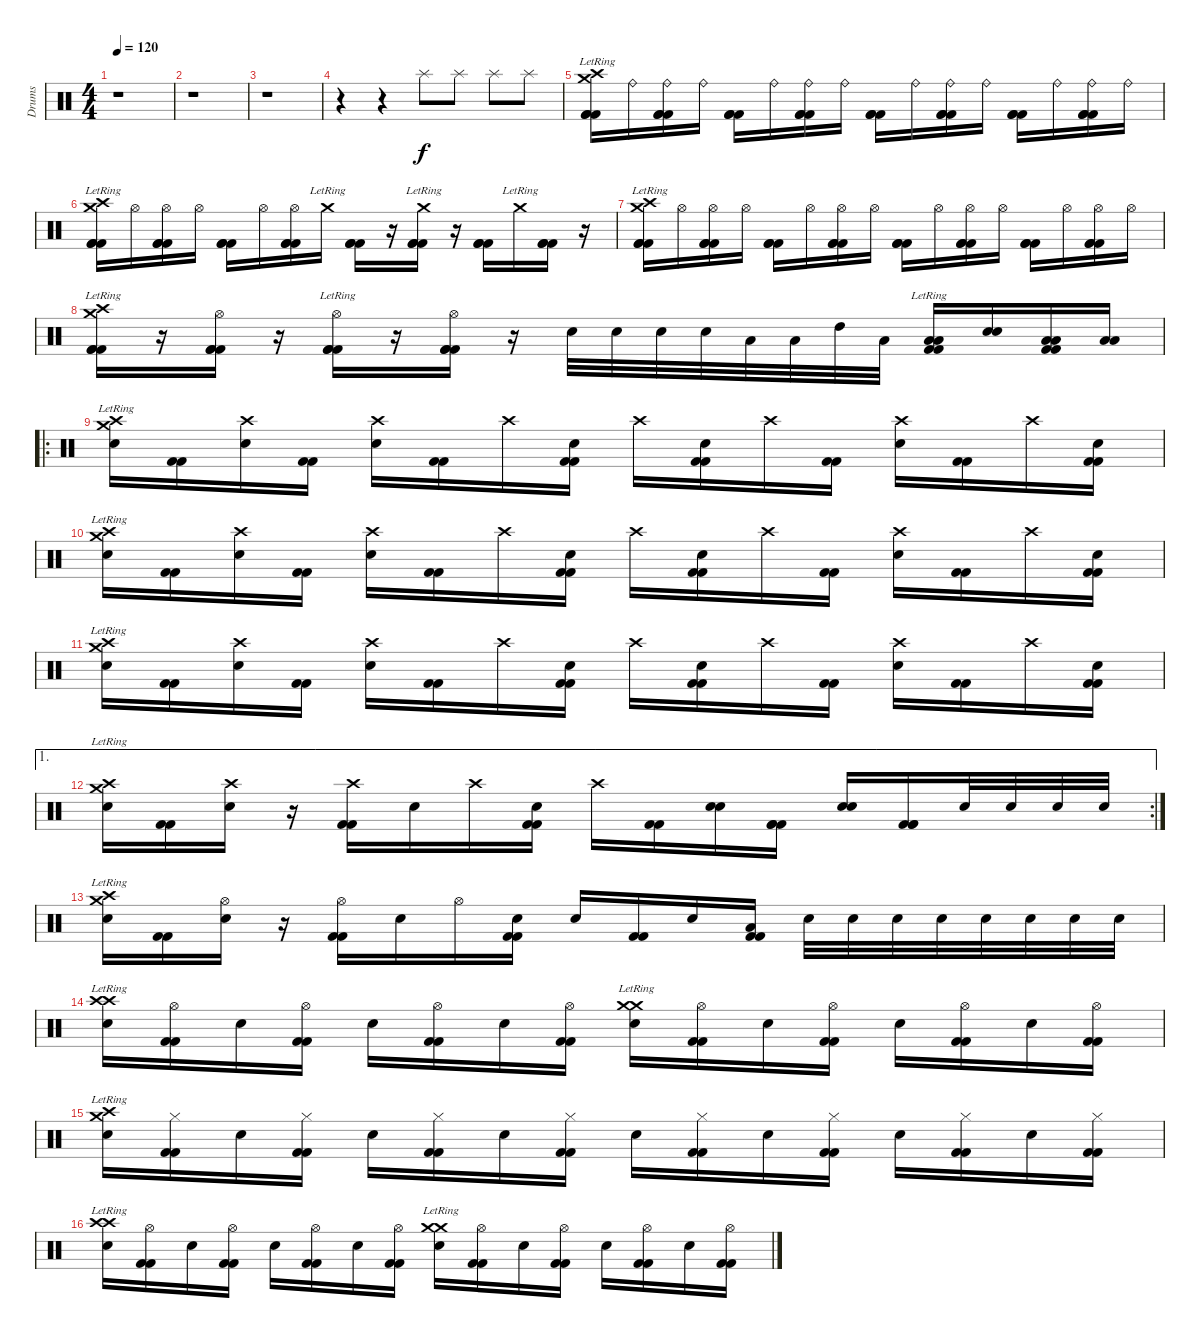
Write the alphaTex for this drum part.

\track ("Drums" "Drums") {instrument percussion}
\staff {score}
\articulation defaults
\ts (4 4)
\tempo 120
\clef neutral
\ks c
r.1{dy f} |
r.1 |
r.1 |
r.4 r.4 "Splash (hit)".8 "Splash (hit)".8 "Splash (hit)".8 "Splash (hit)".8 |
("Crash high (hit)"{lr} "Crash medium (hit)"{lr} "Kick (hit) 2" "Kick (hit) 2" "Kick (hit) 2").16 "Ride (bell)".16 ("Ride (bell)" "Kick (hit) 2" "Kick (hit) 2" "Kick (hit) 2").16 "Ride (bell)".16 ("Kick (hit) 2" "Kick (hit) 2" "Kick (hit) 2").16 "Ride (bell)".16 ("Ride (bell)" "Kick (hit) 2" "Kick (hit) 2" "Kick (hit) 2").16 "Ride (bell)".16 ("Kick (hit) 2" "Kick (hit) 2" "Kick (hit) 2").16 "Ride (bell)".16 ("Ride (bell)" "Kick (hit) 2" "Kick (hit) 2" "Kick (hit) 2").16 "Ride (bell)".16 ("Kick (hit) 2" "Kick (hit) 2" "Kick (hit) 2").16 "Ride (bell)".16 ("Ride (bell)" "Kick (hit) 2" "Kick (hit) 2" "Kick (hit) 2").16 "Ride (bell)".16 |
("Crash high (hit)"{lr} "Crash medium (hit)"{lr} "Kick (hit) 2" "Kick (hit) 2" "Kick (hit) 2").16 "Hi-Hat (open)".16 ("Hi-Hat (open)" "Kick (hit) 2" "Kick (hit) 2" "Kick (hit) 2").16 "Hi-Hat (open)".16 ("Kick (hit) 2" "Kick (hit) 2" "Kick (hit) 2").16 "Hi-Hat (open)".16 ("Hi-Hat (open)" "Kick (hit) 2" "Kick (hit) 2" "Kick (hit) 2").16 "Crash medium (hit)"{lr}.16 ("Kick (hit) 2" "Kick (hit) 2" "Kick (hit) 2").16 r.16 ("Crash medium (hit)"{lr} "Kick (hit) 2" "Kick (hit) 2" "Kick (hit) 2").16 r.16 ("Kick (hit) 2" "Kick (hit) 2" "Kick (hit) 2").16 "Crash medium (hit)"{lr}.16 ("Kick (hit) 2" "Kick (hit) 2" "Kick (hit) 2").16 r.16 |
("Crash high (hit)"{lr} "Crash medium (hit)"{lr} "Kick (hit) 2" "Kick (hit) 2" "Kick (hit) 2").16 "Hi-Hat (open)".16 ("Hi-Hat (open)" "Kick (hit) 2" "Kick (hit) 2" "Kick (hit) 2").16 "Hi-Hat (open)".16 ("Kick (hit) 2" "Kick (hit) 2" "Kick (hit) 2").16 "Hi-Hat (open)".16 ("Hi-Hat (open)" "Kick (hit) 2" "Kick (hit) 2" "Kick (hit) 2").16 "Hi-Hat (open)".16 ("Kick (hit) 2" "Kick (hit) 2" "Kick (hit) 2").16 "Hi-Hat (open)".16 ("Hi-Hat (open)" "Kick (hit) 2" "Kick (hit) 2" "Kick (hit) 2").16 "Hi-Hat (open)".16 ("Kick (hit) 2" "Kick (hit) 2" "Kick (hit) 2").16 "Hi-Hat (open)".16 ("Hi-Hat (open)" "Kick (hit) 2" "Kick (hit) 2" "Kick (hit) 2").16 "Hi-Hat (open)".16 |
("Crash high (hit)"{lr} "Crash medium (hit)"{lr} "Kick (hit) 2" "Kick (hit) 2" "Kick (hit) 2").16 r.16 ("Hi-Hat (open)" "Kick (hit) 2" "Kick (hit) 2" "Kick (hit) 2").16 r.16 ("Hi-Hat (open)"{lr} "Kick (hit) 2" "Kick (hit) 2" "Kick (hit) 2").16 r.16 ("Hi-Hat (open)" "Kick (hit) 2" "Kick (hit) 2" "Kick (hit) 2").16 r.16 "Electric Snare (hit)".32 "Electric Snare (hit)".32 "Electric Snare (hit)".32 "Electric Snare (hit)".32 "Low Floor Tom (hit)".32 "Low Tom (hit)".32 "High Tom (hit)".32 "Low Tom (hit)".32 ("Low Floor Tom (hit)" "Low Floor Tom (hit)"{lr} "Kick (hit) 2" "Kick (hit) 2").16 ("Electric Snare (hit)" "Electric Snare (hit)").16 ("Low Floor Tom (hit)" "Low Floor Tom (hit)" "Kick (hit) 2" "Kick (hit) 2").16 ("Low Tom (hit)" "Low Tom (hit)").16 |
\ro
("Crash medium (hit)"{lr} "Crash high (hit)"{lr} "Electric Snare (hit)").16 ("Kick (hit) 2" "Kick (hit) 2").16 ("Crash high (hit)" "Electric Snare (hit)").16 ("Kick (hit) 2" "Kick (hit) 2").16 ("Crash high (hit)" "Electric Snare (hit)").16 ("Kick (hit) 2" "Kick (hit) 2").16 "Crash high (hit)".16 ("Electric Snare (hit)" "Kick (hit) 2" "Kick (hit) 2").16 "Crash high (hit)".16 ("Electric Snare (hit)" "Kick (hit) 2" "Kick (hit) 2").16 "Crash high (hit)".16 ("Kick (hit) 2" "Kick (hit) 2").16 ("Crash high (hit)" "Electric Snare (hit)").16 ("Kick (hit) 2" "Kick (hit) 2").16 "Crash high (hit)".16 ("Electric Snare (hit)" "Kick (hit) 2" "Kick (hit) 2").16 |
("Crash medium (hit)"{lr} "Crash high (hit)"{lr} "Electric Snare (hit)").16 ("Kick (hit) 2" "Kick (hit) 2").16 ("Crash high (hit)" "Electric Snare (hit)").16 ("Kick (hit) 2" "Kick (hit) 2").16 ("Crash high (hit)" "Electric Snare (hit)").16 ("Kick (hit) 2" "Kick (hit) 2").16 "Crash high (hit)".16 ("Electric Snare (hit)" "Kick (hit) 2" "Kick (hit) 2").16 "Crash high (hit)".16 ("Electric Snare (hit)" "Kick (hit) 2" "Kick (hit) 2").16 "Crash high (hit)".16 ("Kick (hit) 2" "Kick (hit) 2").16 ("Crash high (hit)" "Electric Snare (hit)").16 ("Kick (hit) 2" "Kick (hit) 2").16 "Crash high (hit)".16 ("Electric Snare (hit)" "Kick (hit) 2" "Kick (hit) 2").16 |
("Crash medium (hit)"{lr} "Crash high (hit)"{lr} "Electric Snare (hit)").16 ("Kick (hit) 2" "Kick (hit) 2").16 ("Crash high (hit)" "Electric Snare (hit)").16 ("Kick (hit) 2" "Kick (hit) 2").16 ("Crash high (hit)" "Electric Snare (hit)").16 ("Kick (hit) 2" "Kick (hit) 2").16 "Crash high (hit)".16 ("Electric Snare (hit)" "Kick (hit) 2" "Kick (hit) 2").16 "Crash high (hit)".16 ("Electric Snare (hit)" "Kick (hit) 2" "Kick (hit) 2").16 "Crash high (hit)".16 ("Kick (hit) 2" "Kick (hit) 2").16 ("Crash high (hit)" "Electric Snare (hit)").16 ("Kick (hit) 2" "Kick (hit) 2").16 "Crash high (hit)".16 ("Electric Snare (hit)" "Kick (hit) 2" "Kick (hit) 2").16 |
\ae 1
\rc 2
("Crash medium (hit)"{lr} "Crash high (hit)"{lr} "Electric Snare (hit)").16 ("Kick (hit) 2" "Kick (hit) 2").16 ("Crash high (hit)" "Electric Snare (hit)").16 r.16 ("Crash high (hit)" "Kick (hit) 2" "Kick (hit) 2").16 "Electric Snare (hit)".16 "Crash high (hit)".16 ("Electric Snare (hit)" "Kick (hit) 2" "Kick (hit) 2").16 "Crash high (hit)".16 ("Kick (hit) 2" "Kick (hit) 2").16 ("Electric Snare (hit)" "Electric Snare (hit)").16 ("Kick (hit) 2" "Kick (hit) 2" "Kick (hit) 2").16 ("Electric Snare (hit)" "Electric Snare (hit)").16 ("Kick (hit) 2" "Kick (hit) 2" "Kick (hit) 2").16 "Electric Snare (hit)".32 "Electric Snare (hit)".32 "Electric Snare (hit)".32 "Electric Snare (hit)".32 |
("Crash high (hit)"{lr} "Crash medium (hit)"{lr} "Electric Snare (hit)").16 ("Kick (hit) 2" "Kick (hit) 2").16 ("Hi-Hat (open)" "Electric Snare (hit)").16 r.16 ("Hi-Hat (open)" "Kick (hit) 2" "Kick (hit) 2").16 "Electric Snare (hit)".16 "Hi-Hat (open)".16 ("Electric Snare (hit)" "Kick (hit) 2" "Kick (hit) 2").16 "Electric Snare (hit)".16 ("Kick (hit) 2" "Kick (hit) 2").16 "Electric Snare (hit)".16 ("Low Tom (hit)" "Kick (hit) 2" "Kick (hit) 2").16 "Electric Snare (hit)".32 "Electric Snare (hit)".32 "Electric Snare (hit)".32 "Electric Snare (hit)".32 "Electric Snare (hit)".32 "Electric Snare (hit)".32 "Electric Snare (hit)".32 "Electric Snare (hit)".32 |
("Crash high (hit)"{lr} "Crash high (hit)"{lr} "Electric Snare (hit)").16 ("Hi-Hat (open)" "Kick (hit) 2" "Kick (hit) 2").16 "Electric Snare (hit)".16 ("Hi-Hat (open)" "Kick (hit) 2" "Kick (hit) 2").16 "Electric Snare (hit)".16 ("Hi-Hat (open)" "Kick (hit) 2" "Kick (hit) 2").16 "Electric Snare (hit)".16 ("Hi-Hat (open)" "Kick (hit) 2" "Kick (hit) 2").16 ("Crash medium (hit)"{lr} "Crash medium (hit)"{lr} "Electric Snare (hit)").16 ("Hi-Hat (open)" "Kick (hit) 2" "Kick (hit) 2").16 "Electric Snare (hit)".16 ("Hi-Hat (open)" "Kick (hit) 2" "Kick (hit) 2").16 "Electric Snare (hit)".16 ("Hi-Hat (open)" "Kick (hit) 2" "Kick (hit) 2").16 "Electric Snare (hit)".16 ("Hi-Hat (open)" "Kick (hit) 2" "Kick (hit) 2").16 |
("Crash medium (hit)"{lr} "Crash high (hit)"{lr} "Electric Snare (hit)").16 ("Hi-Hat (closed)" "Kick (hit) 2" "Kick (hit) 2").16 "Electric Snare (hit)".16 ("Hi-Hat (closed)" "Kick (hit) 2" "Kick (hit) 2").16 "Electric Snare (hit)".16 ("Hi-Hat (closed)" "Kick (hit) 2" "Kick (hit) 2").16 "Electric Snare (hit)".16 ("Hi-Hat (closed)" "Kick (hit) 2" "Kick (hit) 2").16 "Electric Snare (hit)".16 ("Hi-Hat (closed)" "Kick (hit) 2" "Kick (hit) 2").16 "Electric Snare (hit)".16 ("Hi-Hat (closed)" "Kick (hit) 2" "Kick (hit) 2").16 "Electric Snare (hit)".16 ("Hi-Hat (closed)" "Kick (hit) 2" "Kick (hit) 2").16 "Electric Snare (hit)".16 ("Hi-Hat (closed)" "Kick (hit) 2" "Kick (hit) 2").16 |
("Crash high (hit)"{lr} "Crash high (hit)"{lr} "Electric Snare (hit)").16 ("Hi-Hat (open)" "Kick (hit) 2" "Kick (hit) 2").16 "Electric Snare (hit)".16 ("Hi-Hat (open)" "Kick (hit) 2" "Kick (hit) 2").16 "Electric Snare (hit)".16 ("Hi-Hat (open)" "Kick (hit) 2" "Kick (hit) 2").16 "Electric Snare (hit)".16 ("Hi-Hat (open)" "Kick (hit) 2" "Kick (hit) 2").16 ("Crash medium (hit)"{lr} "Crash medium (hit)"{lr} "Electric Snare (hit)").16 ("Hi-Hat (open)" "Kick (hit) 2" "Kick (hit) 2").16 "Electric Snare (hit)".16 ("Hi-Hat (open)" "Kick (hit) 2" "Kick (hit) 2").16 "Electric Snare (hit)".16 ("Hi-Hat (open)" "Kick (hit) 2" "Kick (hit) 2").16 "Electric Snare (hit)".16 ("Hi-Hat (open)" "Kick (hit) 2" "Kick (hit) 2").16
